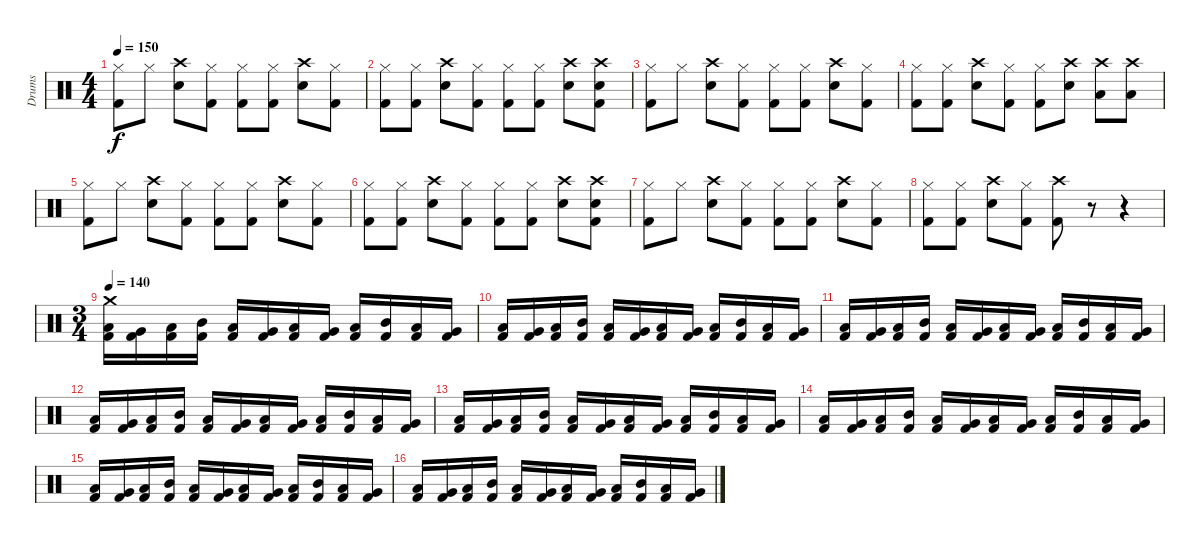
\track ("Drums" "Drums") {instrument percussion}
\staff {score}
\articulation defaults
\ts (4 4)
\tempo 150
\clef neutral
\ks c
("Hi-Hat (closed)" "Kick (hit) 2").8{dy f} "Hi-Hat (closed)".8 ("Crash high (hit)" "Electric Snare (hit)").8 ("Hi-Hat (closed)" "Kick (hit) 2").8 ("Hi-Hat (closed)" "Kick (hit) 2").8 ("Hi-Hat (closed)" "Kick (hit) 2").8 ("Crash high (hit)" "Electric Snare (hit)").8 ("Hi-Hat (closed)" "Kick (hit) 2").8 |
("Hi-Hat (closed)" "Kick (hit) 2").8 ("Hi-Hat (closed)" "Kick (hit) 2").8 ("Crash high (hit)" "Electric Snare (hit)").8 ("Hi-Hat (closed)" "Kick (hit) 2").8 ("Hi-Hat (closed)" "Kick (hit) 2").8 ("Hi-Hat (closed)" "Kick (hit) 2").8 ("Crash high (hit)" "Electric Snare (hit)").8 ("Crash high (hit)" "Electric Snare (hit)" "Kick (hit) 2").8 |
("Hi-Hat (closed)" "Kick (hit) 2").8 "Hi-Hat (closed)".8 ("Crash high (hit)" "Electric Snare (hit)").8 ("Hi-Hat (closed)" "Kick (hit) 2").8 ("Hi-Hat (closed)" "Kick (hit) 2").8 ("Hi-Hat (closed)" "Kick (hit) 2").8 ("Crash high (hit)" "Electric Snare (hit)").8 ("Hi-Hat (closed)" "Kick (hit) 2").8 |
("Hi-Hat (closed)" "Kick (hit) 2").8 ("Hi-Hat (closed)" "Kick (hit) 2").8 ("Crash high (hit)" "Electric Snare (hit)").8 ("Hi-Hat (closed)" "Kick (hit) 2").8 ("Hi-Hat (closed)" "Kick (hit) 2").8 ("Crash high (hit)" "Electric Snare (hit)").8 ("Crash high (hit)" "Low Tom (hit)").8 ("Crash high (hit)" "Low Floor Tom (hit)").8 |
("Hi-Hat (closed)" "Kick (hit) 2").8 "Hi-Hat (closed)".8 ("Crash high (hit)" "Electric Snare (hit)").8 ("Hi-Hat (closed)" "Kick (hit) 2").8 ("Hi-Hat (closed)" "Kick (hit) 2").8 ("Hi-Hat (closed)" "Kick (hit) 2").8 ("Crash high (hit)" "Electric Snare (hit)").8 ("Hi-Hat (closed)" "Kick (hit) 2").8 |
("Hi-Hat (closed)" "Kick (hit) 2").8 ("Hi-Hat (closed)" "Kick (hit) 2").8 ("Crash high (hit)" "Electric Snare (hit)").8 ("Hi-Hat (closed)" "Kick (hit) 2").8 ("Hi-Hat (closed)" "Kick (hit) 2").8 ("Hi-Hat (closed)" "Kick (hit) 2").8 ("Crash high (hit)" "Electric Snare (hit)").8 ("Crash high (hit)" "Electric Snare (hit)" "Kick (hit) 2").8 |
("Hi-Hat (closed)" "Kick (hit) 2").8 "Hi-Hat (closed)".8 ("Crash high (hit)" "Electric Snare (hit)").8 ("Hi-Hat (closed)" "Kick (hit) 2").8 ("Hi-Hat (closed)" "Kick (hit) 2").8 ("Hi-Hat (closed)" "Kick (hit) 2").8 ("Crash high (hit)" "Electric Snare (hit)").8 ("Hi-Hat (closed)" "Kick (hit) 2").8 |
("Hi-Hat (closed)" "Kick (hit) 2").8 ("Hi-Hat (closed)" "Kick (hit) 2").8 ("Crash high (hit)" "Electric Snare (hit)").8 ("Hi-Hat (closed)" "Kick (hit) 2").8 ("Crash high (hit)" "Kick (hit) 2").8 r.8 r.4 |
\ts (3 4)
\tempo 140
("Crash medium (hit)" "Low Floor Tom (hit)" "Kick (hit) 2").16 ("Very Low Tom (hit)" "Kick (hit) 2").16 ("Low Tom (hit)" "Kick (hit) 2").16 ("Mid Tom (hit)" "Kick (hit) 2").16 ("Low Tom (hit)" "Kick (hit) 2").16 ("Very Low Tom (hit)" "Kick (hit) 2").16 ("Low Floor Tom (hit)" "Kick (hit) 2").16 ("Very Low Tom (hit)" "Kick (hit) 2").16 ("Low Tom (hit)" "Kick (hit) 2").16 ("Mid Tom (hit)" "Kick (hit) 2").16 ("Low Tom (hit)" "Kick (hit) 2").16 ("Very Low Tom (hit)" "Kick (hit) 2").16 |
("Low Floor Tom (hit)" "Kick (hit) 2").16 ("Very Low Tom (hit)" "Kick (hit) 2").16 ("Low Tom (hit)" "Kick (hit) 2").16 ("Mid Tom (hit)" "Kick (hit) 2").16 ("Low Tom (hit)" "Kick (hit) 2").16 ("Very Low Tom (hit)" "Kick (hit) 2").16 ("Low Floor Tom (hit)" "Kick (hit) 2").16 ("Very Low Tom (hit)" "Kick (hit) 2").16 ("Low Tom (hit)" "Kick (hit) 2").16 ("Mid Tom (hit)" "Kick (hit) 2").16 ("Low Tom (hit)" "Kick (hit) 2").16 ("Very Low Tom (hit)" "Kick (hit) 2").16 |
("Low Floor Tom (hit)" "Kick (hit) 2").16 ("Very Low Tom (hit)" "Kick (hit) 2").16 ("Low Tom (hit)" "Kick (hit) 2").16 ("Mid Tom (hit)" "Kick (hit) 2").16 ("Low Tom (hit)" "Kick (hit) 2").16 ("Very Low Tom (hit)" "Kick (hit) 2").16 ("Low Floor Tom (hit)" "Kick (hit) 2").16 ("Very Low Tom (hit)" "Kick (hit) 2").16 ("Low Tom (hit)" "Kick (hit) 2").16 ("Mid Tom (hit)" "Kick (hit) 2").16 ("Low Tom (hit)" "Kick (hit) 2").16 ("Very Low Tom (hit)" "Kick (hit) 2").16 |
("Low Floor Tom (hit)" "Kick (hit) 2").16 ("Very Low Tom (hit)" "Kick (hit) 2").16 ("Low Tom (hit)" "Kick (hit) 2").16 ("Mid Tom (hit)" "Kick (hit) 2").16 ("Low Tom (hit)" "Kick (hit) 2").16 ("Very Low Tom (hit)" "Kick (hit) 2").16 ("Low Floor Tom (hit)" "Kick (hit) 2").16 ("Very Low Tom (hit)" "Kick (hit) 2").16 ("Low Tom (hit)" "Kick (hit) 2").16 ("Mid Tom (hit)" "Kick (hit) 2").16 ("Low Tom (hit)" "Kick (hit) 2").16 ("Very Low Tom (hit)" "Kick (hit) 2").16 |
("Low Floor Tom (hit)" "Kick (hit) 2").16 ("Very Low Tom (hit)" "Kick (hit) 2").16 ("Low Tom (hit)" "Kick (hit) 2").16 ("Mid Tom (hit)" "Kick (hit) 2").16 ("Low Tom (hit)" "Kick (hit) 2").16 ("Very Low Tom (hit)" "Kick (hit) 2").16 ("Low Floor Tom (hit)" "Kick (hit) 2").16 ("Very Low Tom (hit)" "Kick (hit) 2").16 ("Low Tom (hit)" "Kick (hit) 2").16 ("Mid Tom (hit)" "Kick (hit) 2").16 ("Low Tom (hit)" "Kick (hit) 2").16 ("Very Low Tom (hit)" "Kick (hit) 2").16 |
("Low Floor Tom (hit)" "Kick (hit) 2").16 ("Very Low Tom (hit)" "Kick (hit) 2").16 ("Low Tom (hit)" "Kick (hit) 2").16 ("Mid Tom (hit)" "Kick (hit) 2").16 ("Low Tom (hit)" "Kick (hit) 2").16 ("Very Low Tom (hit)" "Kick (hit) 2").16 ("Low Floor Tom (hit)" "Kick (hit) 2").16 ("Very Low Tom (hit)" "Kick (hit) 2").16 ("Low Tom (hit)" "Kick (hit) 2").16 ("Mid Tom (hit)" "Kick (hit) 2").16 ("Low Tom (hit)" "Kick (hit) 2").16 ("Very Low Tom (hit)" "Kick (hit) 2").16 |
("Low Floor Tom (hit)" "Kick (hit) 2").16 ("Very Low Tom (hit)" "Kick (hit) 2").16 ("Low Tom (hit)" "Kick (hit) 2").16 ("Mid Tom (hit)" "Kick (hit) 2").16 ("Low Tom (hit)" "Kick (hit) 2").16 ("Very Low Tom (hit)" "Kick (hit) 2").16 ("Low Floor Tom (hit)" "Kick (hit) 2").16 ("Very Low Tom (hit)" "Kick (hit) 2").16 ("Low Tom (hit)" "Kick (hit) 2").16 ("Mid Tom (hit)" "Kick (hit) 2").16 ("Low Tom (hit)" "Kick (hit) 2").16 ("Very Low Tom (hit)" "Kick (hit) 2").16 |
("Low Floor Tom (hit)" "Kick (hit) 2").16 ("Very Low Tom (hit)" "Kick (hit) 2").16 ("Low Tom (hit)" "Kick (hit) 2").16 ("Mid Tom (hit)" "Kick (hit) 2").16 ("Low Tom (hit)" "Kick (hit) 2").16 ("Very Low Tom (hit)" "Kick (hit) 2").16 ("Low Floor Tom (hit)" "Kick (hit) 2").16 ("Very Low Tom (hit)" "Kick (hit) 2").16 ("Low Tom (hit)" "Kick (hit) 2").16 ("Mid Tom (hit)" "Kick (hit) 2").16 ("Low Tom (hit)" "Kick (hit) 2").16 ("Very Low Tom (hit)" "Kick (hit) 2").16
